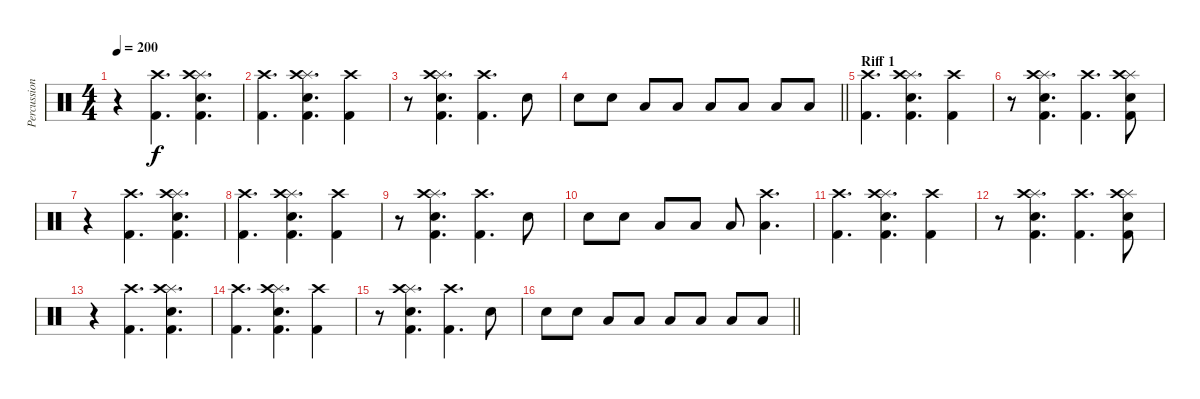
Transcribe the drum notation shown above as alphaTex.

\track ("Percussion" "Percussion") {instrument percussion}
\staff {score}
\articulation defaults
\ts (4 4)
\tempo 200
\clef neutral
\ks c
r.4{dy f} ("Crash high (hit)" "Kick (hit) 2").4{d} ("Splash (hit)" "Crash high (hit)" "Electric Snare (hit)" "Kick (hit) 2").4{d} |
("Crash high (hit)" "Kick (hit) 2").4{d} ("Splash (hit)" "Crash high (hit)" "Electric Snare (hit)" "Kick (hit) 2").4{d} ("Crash high (hit)" "Kick (hit) 2").4 |
r.8 ("Splash (hit)" "Crash high (hit)" "Electric Snare (hit)" "Kick (hit) 2").4{d} ("Crash high (hit)" "Kick (hit) 2").4{d} "Snare (hit) 2".8 |
\barLineRight lightlight "Snare (hit) 2".8 "Snare (hit) 2".8 "Low Tom (hit)".8 "Low Tom (hit)".8 "Low Tom (hit)".8 "Low Floor Tom (hit)".8 "Low Floor Tom (hit)".8 "Low Floor Tom (hit)".8
|
\section ("" "Riff 1")
("Crash high (hit)" "Kick (hit) 2").4{d} ("Splash (hit)" "Crash high (hit)" "Electric Snare (hit)" "Kick (hit) 2").4{d} ("Crash high (hit)" "Kick (hit) 2").4 |
r.8 ("Splash (hit)" "Crash high (hit)" "Electric Snare (hit)" "Kick (hit) 2").4{d} ("Crash high (hit)" "Kick (hit) 2").4{d} ("Splash (hit)" "Crash high (hit)" "Electric Snare (hit)" "Kick (hit) 2").8 |
r.4 ("Crash high (hit)" "Kick (hit) 2").4{d} ("Splash (hit)" "Crash high (hit)" "Electric Snare (hit)" "Kick (hit) 2").4{d} |
("Crash high (hit)" "Kick (hit) 2").4{d} ("Splash (hit)" "Crash high (hit)" "Electric Snare (hit)" "Kick (hit) 2").4{d} ("Crash high (hit)" "Kick (hit) 2").4 |
r.8 ("Splash (hit)" "Crash high (hit)" "Electric Snare (hit)" "Kick (hit) 2").4{d} ("Crash high (hit)" "Kick (hit) 2").4{d} "Snare (hit) 2".8 |
"Snare (hit) 2".8 "Snare (hit) 2".8 "Low Tom (hit)".8 "Low Tom (hit)".8 "Low Tom (hit)".8 ("Crash high (hit)" "Low Floor Tom (hit)").4{d} |
("Crash high (hit)" "Kick (hit) 2").4{d} ("Splash (hit)" "Crash high (hit)" "Electric Snare (hit)" "Kick (hit) 2").4{d} ("Crash high (hit)" "Kick (hit) 2").4 |
r.8 ("Splash (hit)" "Crash high (hit)" "Electric Snare (hit)" "Kick (hit) 2").4{d} ("Crash high (hit)" "Kick (hit) 2").4{d} ("Splash (hit)" "Crash high (hit)" "Electric Snare (hit)" "Kick (hit) 2").8 |
r.4 ("Crash high (hit)" "Kick (hit) 2").4{d} ("Splash (hit)" "Crash high (hit)" "Electric Snare (hit)" "Kick (hit) 2").4{d} |
("Crash high (hit)" "Kick (hit) 2").4{d} ("Splash (hit)" "Crash high (hit)" "Electric Snare (hit)" "Kick (hit) 2").4{d} ("Crash high (hit)" "Kick (hit) 2").4 |
r.8 ("Splash (hit)" "Crash high (hit)" "Electric Snare (hit)" "Kick (hit) 2").4{d} ("Crash high (hit)" "Kick (hit) 2").4{d} "Snare (hit) 2".8 |
\barLineRight lightlight "Snare (hit) 2".8 "Snare (hit) 2".8 "Low Tom (hit)".8 "Low Tom (hit)".8 "Low Tom (hit)".8 "Low Floor Tom (hit)".8 "Low Floor Tom (hit)".8 "Low Floor Tom (hit)".8
